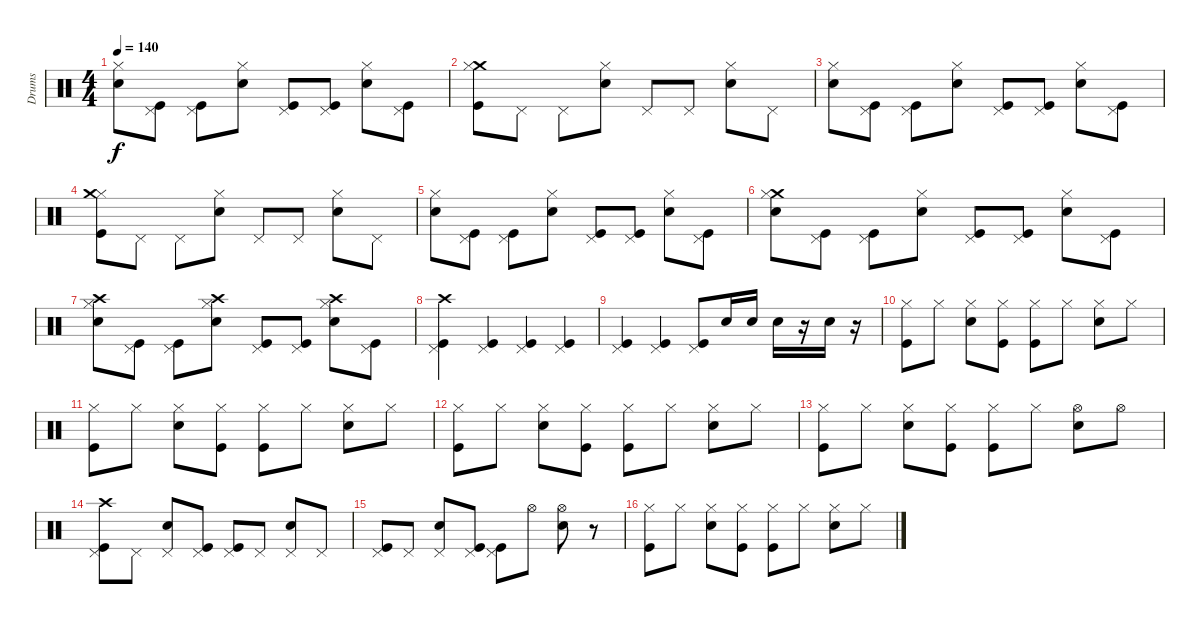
\track ("Drums" "Drums") {instrument percussion}
\staff {score}
\articulation defaults
\ts (4 4)
\tempo 140
\clef neutral
\ks c
("Electric Snare (hit)" "Hi-Hat (closed)").8{dy f} ("Pedal Hi-Hat (hit)" "Kick (hit)").8 ("Pedal Hi-Hat (hit)" "Kick (hit)").8 ("Hi-Hat (closed)" "Electric Snare (hit)").8 ("Pedal Hi-Hat (hit)" "Kick (hit)").8 ("Pedal Hi-Hat (hit)" "Kick (hit)").8 ("Electric Snare (hit)" "Hi-Hat (closed)").8 ("Pedal Hi-Hat (hit)" "Kick (hit)").8 |
("Crash medium (hit)" "Kick (hit)" "Hi-Hat (closed)").8 "Pedal Hi-Hat (hit)".8 "Pedal Hi-Hat (hit)".8 ("Hi-Hat (closed)" "Electric Snare (hit)").8 "Pedal Hi-Hat (hit)".8 "Pedal Hi-Hat (hit)".8 ("Hi-Hat (closed)" "Electric Snare (hit)").8 "Pedal Hi-Hat (hit)".8 |
("Electric Snare (hit)" "Hi-Hat (closed)").8 ("Kick (hit)" "Pedal Hi-Hat (hit)").8 ("Pedal Hi-Hat (hit)" "Kick (hit)").8 ("Electric Snare (hit)" "Hi-Hat (closed)").8 ("Pedal Hi-Hat (hit)" "Kick (hit)").8 ("Kick (hit)" "Pedal Hi-Hat (hit)").8 ("Hi-Hat (closed)" "Electric Snare (hit)").8 ("Pedal Hi-Hat (hit)" "Kick (hit)").8 |
("Hi-Hat (closed)" "Kick (hit)" "Crash medium (hit)").8 "Pedal Hi-Hat (hit)".8 "Pedal Hi-Hat (hit)".8 ("Hi-Hat (closed)" "Electric Snare (hit)").8 "Pedal Hi-Hat (hit)".8 "Pedal Hi-Hat (hit)".8 ("Electric Snare (hit)" "Hi-Hat (closed)").8 "Pedal Hi-Hat (hit)".8 |
("Electric Snare (hit)" "Hi-Hat (closed)").8 ("Pedal Hi-Hat (hit)" "Kick (hit)").8 ("Pedal Hi-Hat (hit)" "Kick (hit)").8 ("Hi-Hat (closed)" "Electric Snare (hit)").8 ("Pedal Hi-Hat (hit)" "Kick (hit)").8 ("Kick (hit)" "Pedal Hi-Hat (hit)").8 ("Electric Snare (hit)" "Hi-Hat (closed)").8 ("Pedal Hi-Hat (hit)" "Kick (hit)").8 |
("Crash medium (hit)" "Hi-Hat (closed)" "Electric Snare (hit)").8 ("Pedal Hi-Hat (hit)" "Kick (hit)").8 ("Kick (hit)" "Pedal Hi-Hat (hit)").8 ("Electric Snare (hit)" "Hi-Hat (closed)").8 ("Kick (hit)" "Pedal Hi-Hat (hit)").8 ("Pedal Hi-Hat (hit)" "Kick (hit)").8 ("Hi-Hat (closed)" "Electric Snare (hit)").8 ("Pedal Hi-Hat (hit)" "Kick (hit)").8 |
("Crash high (hit)" "Electric Snare (hit)" "Hi-Hat (closed)").8 ("Pedal Hi-Hat (hit)" "Kick (hit)").8 ("Pedal Hi-Hat (hit)" "Kick (hit)").8 ("Crash high (hit)" "Hi-Hat (closed)" "Electric Snare (hit)").8 ("Pedal Hi-Hat (hit)" "Kick (hit)").8 ("Kick (hit)" "Pedal Hi-Hat (hit)").8 ("Hi-Hat (closed)" "Electric Snare (hit)" "Crash high (hit)").8 ("Pedal Hi-Hat (hit)" "Kick (hit)").8 |
("Crash high (hit)" "Pedal Hi-Hat (hit)" "Kick (hit)").4 ("Kick (hit)" "Pedal Hi-Hat (hit)").4 ("Kick (hit)" "Pedal Hi-Hat (hit)").4 ("Pedal Hi-Hat (hit)" "Kick (hit)").4 |
("Kick (hit)" "Pedal Hi-Hat (hit)").4 ("Kick (hit)" "Pedal Hi-Hat (hit)").4 ("Pedal Hi-Hat (hit)" "Kick (hit)").8 "Electric Snare (hit)".16 "Electric Snare (hit)".16 "Electric Snare (hit)".16 r.16 "Electric Snare (hit)".16 r.16 |
("Kick (hit)" "Hi-Hat (closed)").8 "Hi-Hat (closed)".8 ("Hi-Hat (closed)" "Electric Snare (hit)").8 ("Kick (hit)" "Hi-Hat (closed)").8 ("Kick (hit)" "Hi-Hat (closed)").8 "Hi-Hat (closed)".8 ("Electric Snare (hit)" "Hi-Hat (closed)").8 "Hi-Hat (closed)".8 |
("Kick (hit)" "Hi-Hat (closed)").8 "Hi-Hat (closed)".8 ("Hi-Hat (closed)" "Electric Snare (hit)").8 ("Hi-Hat (closed)" "Kick (hit)").8 ("Hi-Hat (closed)" "Kick (hit)").8 "Hi-Hat (closed)".8 ("Hi-Hat (closed)" "Electric Snare (hit)").8 "Hi-Hat (closed)".8 |
("Kick (hit)" "Hi-Hat (closed)").8 "Hi-Hat (closed)".8 ("Hi-Hat (closed)" "Electric Snare (hit)").8 ("Hi-Hat (closed)" "Kick (hit)").8 ("Hi-Hat (closed)" "Kick (hit)").8 "Hi-Hat (closed)".8 ("Hi-Hat (closed)" "Electric Snare (hit)").8 "Hi-Hat (closed)".8 |
("Hi-Hat (closed)" "Kick (hit)").8 "Hi-Hat (closed)".8 ("Electric Snare (hit)" "Hi-Hat (closed)").8 ("Hi-Hat (closed)" "Kick (hit)").8 ("Kick (hit)" "Hi-Hat (closed)").8 "Hi-Hat (closed)".8 ("Electric Snare (hit)" "Hi-Hat (open)").8 "Hi-Hat (open)".8 |
("Crash high (hit)" "Pedal Hi-Hat (hit)" "Kick (hit)").8 "Pedal Hi-Hat (hit)".8 ("Electric Snare (hit)" "Pedal Hi-Hat (hit)").8 ("Pedal Hi-Hat (hit)" "Kick (hit)").8 ("Pedal Hi-Hat (hit)" "Kick (hit)").8 "Pedal Hi-Hat (hit)".8 ("Electric Snare (hit)" "Pedal Hi-Hat (hit)").8 "Pedal Hi-Hat (hit)".8 |
("Kick (hit)" "Pedal Hi-Hat (hit)").8 "Pedal Hi-Hat (hit)".8 ("Pedal Hi-Hat (hit)" "Electric Snare (hit)").8 ("Kick (hit)" "Pedal Hi-Hat (hit)").8 ("Kick (hit)" "Pedal Hi-Hat (hit)").8 "Hi-Hat (open)".8 ("Hi-Hat (open)" "Electric Snare (hit)").8 r.8 |
("Hi-Hat (closed)" "Kick (hit)").8 "Hi-Hat (closed)".8 ("Electric Snare (hit)" "Hi-Hat (closed)").8 ("Hi-Hat (closed)" "Kick (hit)").8 ("Hi-Hat (closed)" "Kick (hit)").8 "Hi-Hat (closed)".8 ("Hi-Hat (closed)" "Electric Snare (hit)").8 "Hi-Hat (closed)".8
